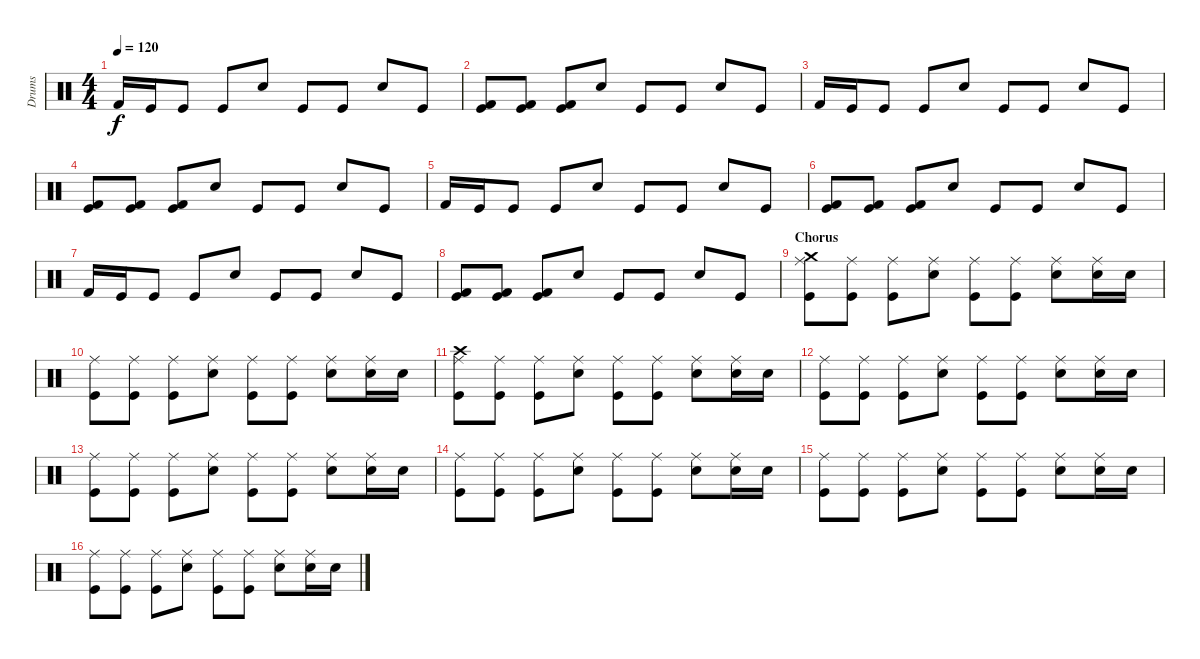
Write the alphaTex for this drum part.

\track ("Drums" "Drums") {instrument percussion}
\staff {score}
\articulation defaults
\ts (4 4)
\tempo 120
\clef neutral
\ks c "Kick (hit) 2".16{dy f} "Kick (hit)".16 "Kick (hit)".8 "Kick (hit)".8 "Electric Snare (hit)".8 "Kick (hit)".8 "Kick (hit)".8 "Electric Snare (hit)".8 "Kick (hit)".8
|
("Kick (hit) 2" "Kick (hit)").8 ("Kick (hit) 2" "Kick (hit)").8 ("Kick (hit) 2" "Kick (hit)").8 "Electric Snare (hit)".8 "Kick (hit)".8 "Kick (hit)".8 "Electric Snare (hit)".8 "Kick (hit)".8 |
"Kick (hit) 2".16 "Kick (hit)".16 "Kick (hit)".8 "Kick (hit)".8 "Electric Snare (hit)".8 "Kick (hit)".8 "Kick (hit)".8 "Electric Snare (hit)".8 "Kick (hit)".8 |
("Kick (hit) 2" "Kick (hit)").8 ("Kick (hit) 2" "Kick (hit)").8 ("Kick (hit) 2" "Kick (hit)").8 "Electric Snare (hit)".8 "Kick (hit)".8 "Kick (hit)".8 "Electric Snare (hit)".8 "Kick (hit)".8 |
"Kick (hit) 2".16 "Kick (hit)".16 "Kick (hit)".8 "Kick (hit)".8 "Electric Snare (hit)".8 "Kick (hit)".8 "Kick (hit)".8 "Electric Snare (hit)".8 "Kick (hit)".8 |
("Kick (hit) 2" "Kick (hit)").8 ("Kick (hit) 2" "Kick (hit)").8 ("Kick (hit) 2" "Kick (hit)").8 "Electric Snare (hit)".8 "Kick (hit)".8 "Kick (hit)".8 "Electric Snare (hit)".8 "Kick (hit)".8 |
"Kick (hit) 2".16 "Kick (hit)".16 "Kick (hit)".8 "Kick (hit)".8 "Electric Snare (hit)".8 "Kick (hit)".8 "Kick (hit)".8 "Electric Snare (hit)".8 "Kick (hit)".8 |
("Kick (hit) 2" "Kick (hit)").8 ("Kick (hit) 2" "Kick (hit)").8 ("Kick (hit) 2" "Kick (hit)").8 "Electric Snare (hit)".8 "Kick (hit)".8 "Kick (hit)".8 "Electric Snare (hit)".8 "Kick (hit)".8 |
\section ("" "Chorus")
("Ride (middle)" "Crash medium (hit)" "Kick (hit)").8 ("Ride (middle)" "Kick (hit)").8 ("Ride (middle)" "Kick (hit)").8 ("Ride (middle)" "Electric Snare (hit)").8 ("Ride (middle)" "Kick (hit)").8 ("Ride (middle)" "Kick (hit)").8 ("Ride (middle)" "Electric Snare (hit)").8 ("Ride (middle)" "Electric Snare (hit)").16 "Electric Snare (hit)".16 |
("Ride (middle)" "Kick (hit)").8 ("Ride (middle)" "Kick (hit)").8 ("Ride (middle)" "Kick (hit)").8 ("Ride (middle)" "Electric Snare (hit)").8 ("Ride (middle)" "Kick (hit)").8 ("Ride (middle)" "Kick (hit)").8 ("Ride (middle)" "Electric Snare (hit)").8 ("Ride (middle)" "Electric Snare (hit)").16 "Electric Snare (hit)".16 |
("Ride (middle)" "Crash high (hit)" "Kick (hit)").8 ("Ride (middle)" "Kick (hit)").8 ("Ride (middle)" "Kick (hit)").8 ("Ride (middle)" "Electric Snare (hit)").8 ("Ride (middle)" "Kick (hit)").8 ("Ride (middle)" "Kick (hit)").8 ("Ride (middle)" "Electric Snare (hit)").8 ("Ride (middle)" "Electric Snare (hit)").16 "Electric Snare (hit)".16 |
("Ride (middle)" "Kick (hit)").8 ("Ride (middle)" "Kick (hit)").8 ("Ride (middle)" "Kick (hit)").8 ("Ride (middle)" "Electric Snare (hit)").8 ("Ride (middle)" "Kick (hit)").8 ("Ride (middle)" "Kick (hit)").8 ("Ride (middle)" "Electric Snare (hit)").8 ("Ride (middle)" "Electric Snare (hit)").16 "Electric Snare (hit)".16 |
("Ride (middle)" "Kick (hit)").8 ("Ride (middle)" "Kick (hit)").8 ("Ride (middle)" "Kick (hit)").8 ("Ride (middle)" "Electric Snare (hit)").8 ("Ride (middle)" "Kick (hit)").8 ("Ride (middle)" "Kick (hit)").8 ("Ride (middle)" "Electric Snare (hit)").8 ("Ride (middle)" "Electric Snare (hit)").16 "Electric Snare (hit)".16 |
("Ride (middle)" "Kick (hit)").8 ("Ride (middle)" "Kick (hit)").8 ("Ride (middle)" "Kick (hit)").8 ("Ride (middle)" "Electric Snare (hit)").8 ("Ride (middle)" "Kick (hit)").8 ("Ride (middle)" "Kick (hit)").8 ("Ride (middle)" "Electric Snare (hit)").8 ("Ride (middle)" "Electric Snare (hit)").16 "Electric Snare (hit)".16 |
("Ride (middle)" "Kick (hit)").8 ("Ride (middle)" "Kick (hit)").8 ("Ride (middle)" "Kick (hit)").8 ("Ride (middle)" "Electric Snare (hit)").8 ("Ride (middle)" "Kick (hit)").8 ("Ride (middle)" "Kick (hit)").8 ("Ride (middle)" "Electric Snare (hit)").8 ("Ride (middle)" "Electric Snare (hit)").16 "Electric Snare (hit)".16 |
("Ride (middle)" "Kick (hit)").8 ("Ride (middle)" "Kick (hit)").8 ("Ride (middle)" "Kick (hit)").8 ("Ride (middle)" "Electric Snare (hit)").8 ("Ride (middle)" "Kick (hit)").8 ("Ride (middle)" "Kick (hit)").8 ("Ride (middle)" "Electric Snare (hit)").8 ("Ride (middle)" "Electric Snare (hit)").16 "Electric Snare (hit)".16
